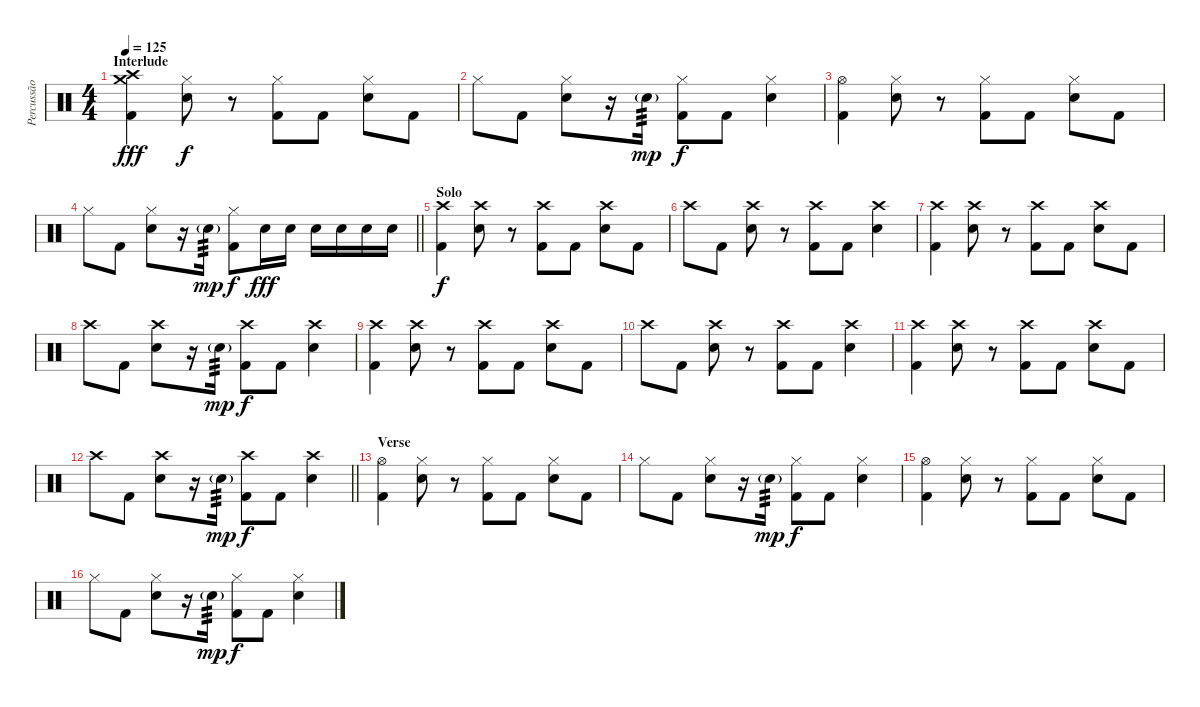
\track ("Percussão" "Percussão") {instrument percussion}
\staff {score}
\articulation defaults
\ts (4 4)
\section ("" "Interlude")
\tempo 125
\clef neutral
\ks c
("Crash medium (hit)" "Crash high (hit)" "Kick (hit) 2").4{dy fff} ("Hi-Hat (closed)" "Electric Snare (hit)").8{dy f} r.8 ("Hi-Hat (closed)" "Kick (hit) 2").8 "Kick (hit) 2".8 ("Hi-Hat (closed)" "Electric Snare (hit)").8 "Kick (hit) 2".8 |
"Hi-Hat (closed)".8 "Kick (hit) 2".8 ("Hi-Hat (closed)" "Electric Snare (hit)").8 r.16 "Electric Snare (hit)"{g}.16{tp 3 dy mp} ("Hi-Hat (closed)" "Kick (hit) 2").8{dy f} "Kick (hit) 2".8 ("Hi-Hat (closed)" "Electric Snare (hit)").4 |
("Hi-Hat (open)" "Kick (hit) 2").4 ("Hi-Hat (closed)" "Electric Snare (hit)").8 r.8 ("Hi-Hat (closed)" "Kick (hit) 2").8 "Kick (hit) 2".8 ("Hi-Hat (closed)" "Electric Snare (hit)").8 "Kick (hit) 2".8 |
\barLineRight lightlight "Hi-Hat (closed)".8 "Kick (hit) 2".8
("Hi-Hat (closed)" "Electric Snare (hit)").8 r.16 "Electric Snare (hit)"{g}.16{tp 3 dy mp} ("Hi-Hat (closed)" "Kick (hit) 2").8{dy f} "Electric Snare (hit)".16{dy fff} "Electric Snare (hit)".16 "Electric Snare (hit)".16 "Electric Snare (hit)".16 "Electric Snare (hit)".16 "Electric Snare (hit)".16 |
\section ("" "Solo")
("Crash high (hit)" "Kick (hit) 2").4{dy f} ("Crash high (hit)" "Electric Snare (hit)").8 r.8 ("Crash high (hit)" "Kick (hit) 2").8 "Kick (hit) 2".8 ("Crash high (hit)" "Electric Snare (hit)").8 "Kick (hit) 2".8 |
"Crash high (hit)".8 "Kick (hit) 2".8 ("Crash high (hit)" "Electric Snare (hit)").8 r.8 ("Crash high (hit)" "Kick (hit) 2").8 "Kick (hit) 2".8 ("Crash high (hit)" "Electric Snare (hit)").4 |
("Crash high (hit)" "Kick (hit) 2").4 ("Crash high (hit)" "Electric Snare (hit)").8 r.8 ("Crash high (hit)" "Kick (hit) 2").8 "Kick (hit) 2".8 ("Crash high (hit)" "Electric Snare (hit)").8 "Kick (hit) 2".8 |
"Crash high (hit)".8 "Kick (hit) 2".8 ("Crash high (hit)" "Electric Snare (hit)").8 r.16 "Electric Snare (hit)"{g}.16{tp 3 dy mp} ("Crash high (hit)" "Kick (hit) 2").8{dy f} "Kick (hit) 2".8 ("Crash high (hit)" "Electric Snare (hit)").4 |
("Crash high (hit)" "Kick (hit) 2").4 ("Crash high (hit)" "Electric Snare (hit)").8 r.8 ("Crash high (hit)" "Kick (hit) 2").8 "Kick (hit) 2".8 ("Crash high (hit)" "Electric Snare (hit)").8 "Kick (hit) 2".8 |
"Crash high (hit)".8 "Kick (hit) 2".8 ("Crash high (hit)" "Electric Snare (hit)").8 r.8 ("Crash high (hit)" "Kick (hit) 2").8 "Kick (hit) 2".8 ("Crash high (hit)" "Electric Snare (hit)").4 |
("Crash high (hit)" "Kick (hit) 2").4 ("Crash high (hit)" "Electric Snare (hit)").8 r.8 ("Crash high (hit)" "Kick (hit) 2").8 "Kick (hit) 2".8 ("Crash high (hit)" "Electric Snare (hit)").8 "Kick (hit) 2".8 |
\barLineRight lightlight "Crash high (hit)".8 "Kick (hit) 2".8
("Crash high (hit)" "Electric Snare (hit)").8 r.16 "Electric Snare (hit)"{g}.16{tp 3 dy mp} ("Crash high (hit)" "Kick (hit) 2").8{dy f} "Kick (hit) 2".8 ("Crash high (hit)" "Electric Snare (hit)").4 |
\section ("" "Verse")
("Hi-Hat (open)" "Kick (hit) 2").4 ("Hi-Hat (closed)" "Electric Snare (hit)").8 r.8 ("Hi-Hat (closed)" "Kick (hit) 2").8 "Kick (hit) 2".8 ("Hi-Hat (closed)" "Electric Snare (hit)").8 "Kick (hit) 2".8 |
"Hi-Hat (closed)".8 "Kick (hit) 2".8 ("Hi-Hat (closed)" "Electric Snare (hit)").8 r.16 "Electric Snare (hit)"{g}.16{tp 3 dy mp} ("Hi-Hat (closed)" "Kick (hit) 2").8{dy f} "Kick (hit) 2".8 ("Hi-Hat (closed)" "Electric Snare (hit)").4 |
("Hi-Hat (open)" "Kick (hit) 2").4 ("Hi-Hat (closed)" "Electric Snare (hit)").8 r.8 ("Hi-Hat (closed)" "Kick (hit) 2").8 "Kick (hit) 2".8 ("Hi-Hat (closed)" "Electric Snare (hit)").8 "Kick (hit) 2".8 |
"Hi-Hat (closed)".8 "Kick (hit) 2".8 ("Hi-Hat (closed)" "Electric Snare (hit)").8 r.16 "Electric Snare (hit)"{g}.16{tp 3 dy mp} ("Hi-Hat (closed)" "Kick (hit) 2").8{dy f} "Kick (hit) 2".8 ("Hi-Hat (closed)" "Electric Snare (hit)").4
